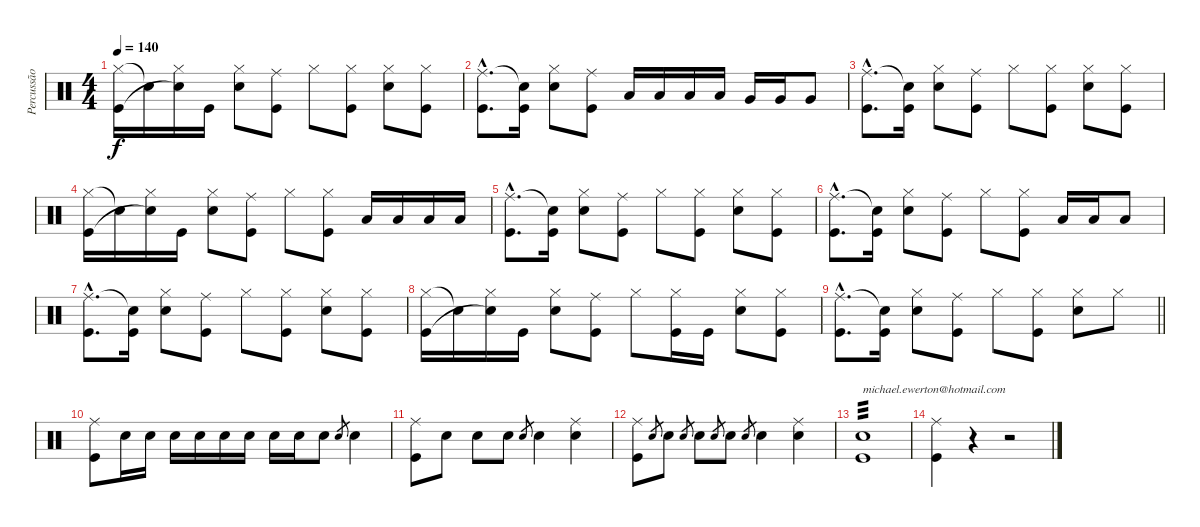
\track ("Percussão" "Percussão") {instrument percussion}
\staff {score}
\articulation defaults
\ts (4 4)
\tempo 140
\clef neutral
\ks c
("Hi-Hat (closed)" "Kick (hit)").16{dy f} "Snare (hit)"{t}.16 ("Hi-Hat (closed)" "Snare (hit)"{t}).16 "Kick (hit)".16 ("Hi-Hat (closed)" "Snare (hit) 2").8 ("Ride (middle)" "Kick (hit)").8 "Hi-Hat (closed)".8 ("Hi-Hat (closed)" "Kick (hit)").8 ("Hi-Hat (closed)" "Snare (hit) 2").8 ("Hi-Hat (closed)" "Kick (hit)").8 |
("Ride (middle)"{hac} "Kick (hit)"{hac}).8{d} ("Snare (hit)"{t} "Kick (hit)").16 ("Hi-Hat (closed)" "Snare (hit) 2").8 ("Ride (middle)" "Kick (hit)").8 "Low Tom (hit)".16 "Low Tom (hit)".16 "Low Tom (hit)".16 "Low Tom (hit)".16 "Very Low Tom (hit)".16 "Very Low Tom (hit)".16 "Very Low Tom (hit)".8 |
("Ride (middle)"{hac} "Kick (hit)"{hac}).8{d} ("Snare (hit)"{t} "Kick (hit)").16 ("Hi-Hat (closed)" "Snare (hit) 2").8 ("Ride (middle)" "Kick (hit)").8 "Hi-Hat (closed)".8 ("Hi-Hat (closed)" "Kick (hit)").8 ("Hi-Hat (closed)" "Snare (hit) 2").8 ("Hi-Hat (closed)" "Kick (hit)").8 |
("Hi-Hat (closed)" "Kick (hit)").16 "Snare (hit)"{t}.16 ("Hi-Hat (closed)" "Snare (hit)"{t}).16 "Kick (hit)".16 ("Hi-Hat (closed)" "Snare (hit) 2").8 ("Ride (middle)" "Kick (hit)").8 "Hi-Hat (closed)".8 ("Hi-Hat (closed)" "Kick (hit)").8 "Low Tom (hit)".16 "Low Tom (hit)".16 "Low Tom (hit)".16 "Low Tom (hit)".16 |
("Ride (middle)"{hac} "Kick (hit)"{hac}).8{d} ("Snare (hit)"{t} "Kick (hit)").16 ("Hi-Hat (closed)" "Snare (hit) 2").8 ("Ride (middle)" "Kick (hit)").8 "Hi-Hat (closed)".8 ("Hi-Hat (closed)" "Kick (hit)").8 ("Hi-Hat (closed)" "Snare (hit) 2").8 ("Hi-Hat (closed)" "Kick (hit)").8 |
("Ride (middle)"{hac} "Kick (hit)"{hac}).8{d} ("Snare (hit)"{t} "Kick (hit)").16 ("Hi-Hat (closed)" "Snare (hit) 2").8 ("Ride (middle)" "Kick (hit)").8 "Hi-Hat (closed)".8 ("Hi-Hat (closed)" "Kick (hit)").8 "Low Tom (hit)".16 "Low Tom (hit)".16 "Low Tom (hit)".8 |
("Ride (middle)"{hac} "Kick (hit)"{hac}).8{d} ("Snare (hit)"{t} "Kick (hit)").16 ("Hi-Hat (closed)" "Snare (hit) 2").8 ("Ride (middle)" "Kick (hit)").8 "Hi-Hat (closed)".8 ("Hi-Hat (closed)" "Kick (hit)").8 ("Hi-Hat (closed)" "Snare (hit) 2").8 ("Hi-Hat (closed)" "Kick (hit)").8 |
("Hi-Hat (closed)" "Kick (hit)").16 "Snare (hit)"{t}.16 ("Hi-Hat (closed)" "Snare (hit)"{t}).16 "Kick (hit)".16 ("Hi-Hat (closed)" "Snare (hit) 2").8 ("Ride (middle)" "Kick (hit)").8 "Hi-Hat (closed)".8 ("Hi-Hat (closed)" "Kick (hit)").16 "Kick (hit)".16 ("Hi-Hat (closed)" "Snare (hit) 2").8 ("Hi-Hat (closed)" "Kick (hit)").8 |
\barLineRight lightlight
("Ride (middle)"{hac} "Kick (hit)"{hac}).8{d} ("Snare (hit)"{t} "Kick (hit)").16 ("Hi-Hat (closed)" "Snare (hit) 2").8 ("Ride (middle)" "Kick (hit)").8 "Hi-Hat (closed)".8 ("Hi-Hat (closed)" "Kick (hit)").8 ("Hi-Hat (closed)" "Snare (hit) 2").8 "Hi-Hat (closed)".8 |
("Ride (middle)" "Kick (hit)").8 "Snare (hit) 2".16 "Snare (hit) 2".16 "Snare (hit) 2".16 "Snare (hit) 2".16 "Snare (hit) 2".16 "Snare (hit) 2".16 "Snare (hit) 2".16 "Snare (hit) 2".16 "Snare (hit) 2".8 "Snare (hit) 2".8{gr} "Snare (hit) 2".4 |
("Ride (middle)" "Kick (hit)").8 "Snare (hit) 2".8 "Snare (hit) 2".8 "Snare (hit) 2".8 "Snare (hit) 2".8{gr} "Snare (hit) 2".4 ("Ride (middle)" "Snare (hit) 2").4 |
("Ride (middle)" "Kick (hit)").8 "Snare (hit) 2".8{gr} "Snare (hit) 2".8 "Snare (hit) 2".8{gr} "Snare (hit) 2".8 "Snare (hit) 2".8{gr} "Snare (hit) 2".8 "Snare (hit) 2".8{gr} "Snare (hit) 2".4 ("Ride (middle)" "Snare (hit) 2").4 |
("Snare (hit) 2" "Kick (hit)").1{txt "michael.ewerton@hotmail.com" tp 3} |
("Ride (middle)" "Kick (hit)").4 r.4 r.2
